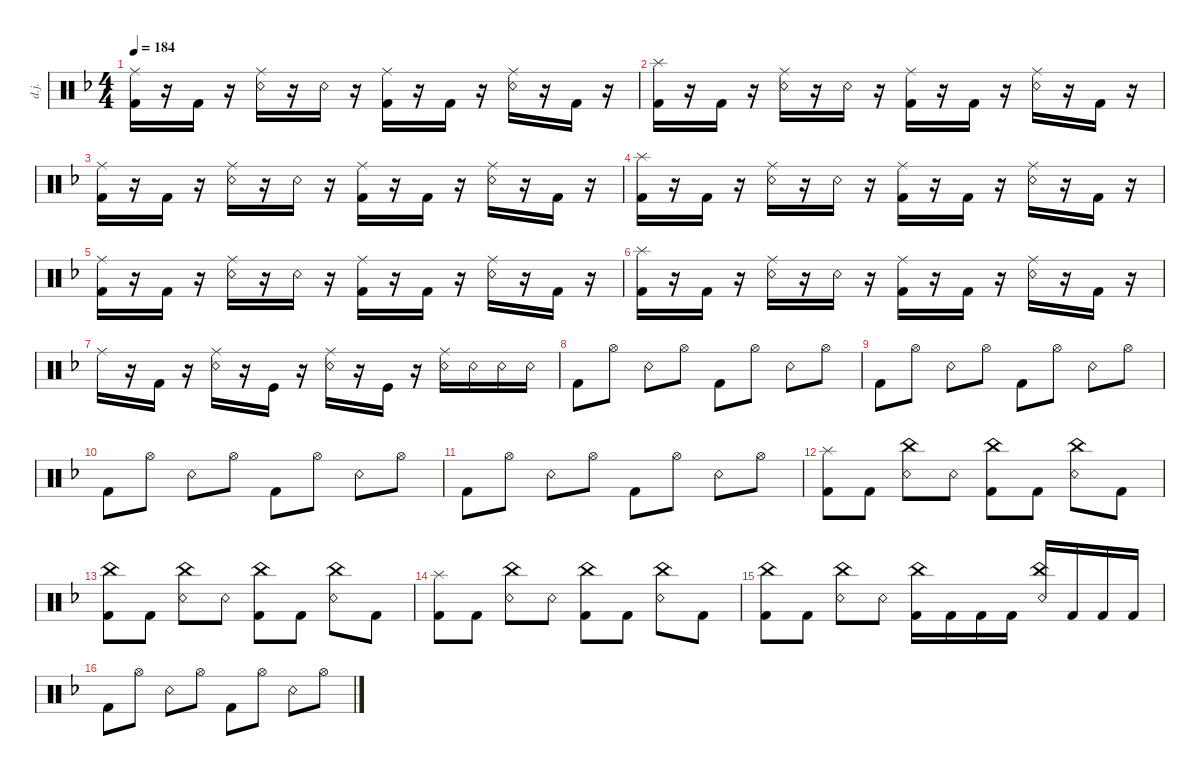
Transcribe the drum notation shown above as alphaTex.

\defaultSystemsLayout 4
\hideDynamics
\bracketExtendMode nobrackets
\otherSystemsTrackNameOrientation horizontal
\track ("Drumkit Jason" "d.j.") {instrument percussion}
\staff {score}
\articulation defaults
\ts (4 4)
\tempo 184
\clef neutral
\ks dminor
("Kick (hit) 2"{acc forcenatural} "Ride (middle)"{acc forcenatural}).16{dy ff beam Down} r.16{beam Down} "Kick (hit) 2"{acc forcenatural}.16{beam Down} r.16{beam Down} ("Snare (rim shot)"{acc forcenatural} "Ride (middle)"{acc forcenatural}).16{beam Down} r.16{beam Down} "Snare (rim shot)"{acc forcenatural}.16{beam Down} r.16{beam Down} ("Kick (hit) 2"{acc forcenatural} "Ride (middle)"{acc forcenatural}).16{beam Down} r.16{beam Down} "Kick (hit) 2"{acc forcenatural}.16{beam Down} r.16{beam Down} ("Snare (rim shot)"{acc forcenatural} "Ride (middle)"{acc forcenatural}).16{beam Down} r.16{beam Down} "Kick (hit) 2"{acc forcenatural}.16{beam Down} r.16{beam Down} |
("Kick (hit) 2"{acc forcenatural} "Splash (hit)"{acc forcenatural}).16{beam Down} r.16{beam Down} "Kick (hit) 2"{acc forcenatural}.16{beam Down} r.16{beam Down} ("Snare (rim shot)"{acc forcenatural} "Ride (middle)"{acc forcenatural}).16{beam Down} r.16{beam Down} "Snare (rim shot)"{acc forcenatural}.16{beam Down} r.16{beam Down} ("Kick (hit) 2"{acc forcenatural} "Ride (middle)"{acc forcenatural}).16{beam Down} r.16{beam Down} "Kick (hit) 2"{acc forcenatural}.16{beam Down} r.16{beam Down} ("Snare (rim shot)"{acc forcenatural} "Ride (middle)"{acc forcenatural}).16{beam Down} r.16{beam Down} "Kick (hit) 2"{acc forcenatural}.16{beam Down} r.16{beam Down} |
("Kick (hit) 2"{acc forcenatural} "Ride (middle)"{acc forcenatural}).16{beam Down} r.16{beam Down} "Kick (hit) 2"{acc forcenatural}.16{beam Down} r.16{beam Down} ("Snare (rim shot)"{acc forcenatural} "Ride (middle)"{acc forcenatural}).16{beam Down} r.16{beam Down} "Snare (rim shot)"{acc forcenatural}.16{beam Down} r.16{beam Down} ("Kick (hit) 2"{acc forcenatural} "Ride (middle)"{acc forcenatural}).16{beam Down} r.16{beam Down} "Kick (hit) 2"{acc forcenatural}.16{beam Down} r.16{beam Down} ("Snare (rim shot)"{acc forcenatural} "Ride (middle)"{acc forcenatural}).16{beam Down} r.16{beam Down} "Kick (hit) 2"{acc forcenatural}.16{beam Down} r.16{beam Down} |
("Kick (hit) 2"{acc forcenatural} "Splash (hit)"{acc forcenatural}).16{beam Down} r.16{beam Down} "Kick (hit) 2"{acc forcenatural}.16{beam Down} r.16{beam Down} ("Snare (rim shot)"{acc forcenatural} "Ride (middle)"{acc forcenatural}).16{beam Down} r.16{beam Down} "Snare (rim shot)"{acc forcenatural}.16{beam Down} r.16{beam Down} ("Kick (hit) 2"{acc forcenatural} "Ride (middle)"{acc forcenatural}).16{beam Down} r.16{beam Down} "Kick (hit) 2"{acc forcenatural}.16{beam Down} r.16{beam Down} ("Snare (rim shot)"{acc forcenatural} "Ride (middle)"{acc forcenatural}).16{beam Down} r.16{beam Down} "Kick (hit) 2"{acc forcenatural}.16{beam Down} r.16{beam Down} |
("Kick (hit) 2"{acc forcenatural} "Ride (middle)"{acc forcenatural}).16{beam Down} r.16{beam Down} "Kick (hit) 2"{acc forcenatural}.16{beam Down} r.16{beam Down} ("Snare (rim shot)"{acc forcenatural} "Ride (middle)"{acc forcenatural}).16{beam Down} r.16{beam Down} "Snare (rim shot)"{acc forcenatural}.16{beam Down} r.16{beam Down} ("Kick (hit) 2"{acc forcenatural} "Ride (middle)"{acc forcenatural}).16{beam Down} r.16{beam Down} "Kick (hit) 2"{acc forcenatural}.16{beam Down} r.16{beam Down} ("Snare (rim shot)"{acc forcenatural} "Ride (middle)"{acc forcenatural}).16{beam Down} r.16{beam Down} "Kick (hit) 2"{acc forcenatural}.16{beam Down} r.16{beam Down} |
("Kick (hit) 2"{acc forcenatural} "Splash (hit)"{acc forcenatural}).16{beam Down} r.16{beam Down} "Kick (hit) 2"{acc forcenatural}.16{beam Down} r.16{beam Down} ("Snare (rim shot)"{acc forcenatural} "Ride (middle)"{acc forcenatural}).16{beam Down} r.16{beam Down} "Snare (rim shot)"{acc forcenatural}.16{beam Down} r.16{beam Down} ("Kick (hit) 2"{acc forcenatural} "Ride (middle)"{acc forcenatural}).16{beam Down} r.16{beam Down} "Kick (hit) 2"{acc forcenatural}.16{beam Down} r.16{beam Down} ("Snare (rim shot)"{acc forcenatural} "Ride (middle)"{acc forcenatural}).16{beam Down} r.16{beam Down} "Kick (hit) 2"{acc forcenatural}.16{beam Down} r.16{beam Down} |
"Ride (middle)"{acc forcenatural}.16{beam Down} r.16{beam Down} "Kick (hit) 2"{acc forcenatural}.16{beam Down} r.16{beam Down} ("Snare (rim shot)"{acc forcenatural} "Ride (middle)"{acc forcenatural}).16{beam Down} r.16{beam Down} "Kick (hit)"{acc forcenatural}.16{beam Down} r.16{beam Down} ("Snare (rim shot)"{acc forcenatural} "Ride (middle)"{acc forcenatural}).16{beam Down} r.16{beam Down} "Kick (hit)"{acc forcenatural}.16{beam Down} r.16{beam Down} ("Snare (rim shot)"{acc forcenatural} "Ride (middle)"{acc forcenatural}).16{beam Down} "Snare (rim shot)"{acc forcenatural}.16{beam Down} "Snare (rim shot)"{acc forcenatural}.16{beam Down} "Snare (rim shot)"{acc forcenatural}.16{beam Down} |
"Kick (hit) 2"{acc forcenatural}.8{beam Down} "Hi-Hat (open)"{acc forcenatural}.8{beam Down} "Snare (rim shot)"{acc forcenatural}.8{beam Down} "Hi-Hat (open)"{acc forcenatural}.8{beam Down} "Kick (hit) 2"{acc forcenatural}.8{beam Down} "Hi-Hat (open)"{acc forcenatural}.8{beam Down} "Snare (rim shot)"{acc forcenatural}.8{beam Down} "Hi-Hat (open)"{acc forcenatural}.8{beam Down} |
"Kick (hit) 2"{acc forcenatural}.8{beam Down} "Hi-Hat (open)"{acc forcenatural}.8{beam Down} "Snare (rim shot)"{acc forcenatural}.8{beam Down} "Hi-Hat (open)"{acc forcenatural}.8{beam Down} "Kick (hit) 2"{acc forcenatural}.8{beam Down} "Hi-Hat (open)"{acc forcenatural}.8{beam Down} "Snare (rim shot)"{acc forcenatural}.8{beam Down} "Hi-Hat (open)"{acc forcenatural}.8{beam Down} |
"Kick (hit) 2"{acc forcenatural}.8{beam Down} "Hi-Hat (open)"{acc forcenatural}.8{beam Down} "Snare (rim shot)"{acc forcenatural}.8{beam Down} "Hi-Hat (open)"{acc forcenatural}.8{beam Down} "Kick (hit) 2"{acc forcenatural}.8{beam Down} "Hi-Hat (open)"{acc forcenatural}.8{beam Down} "Snare (rim shot)"{acc forcenatural}.8{beam Down} "Hi-Hat (open)"{acc forcenatural}.8{beam Down} |
"Kick (hit) 2"{acc forcenatural}.8{beam Down} "Hi-Hat (open)"{acc forcenatural}.8{beam Down} "Snare (rim shot)"{acc forcenatural}.8{beam Down} "Hi-Hat (open)"{acc forcenatural}.8{beam Down} "Kick (hit) 2"{acc forcenatural}.8{beam Down} "Hi-Hat (open)"{acc forcenatural}.8{beam Down} "Snare (rim shot)"{acc forcenatural}.8{beam Down} "Hi-Hat (open)"{acc forcenatural}.8{beam Down} |
("Kick (hit) 2"{acc forcenatural} "Splash (hit)"{acc forcenatural}).8{beam Down} "Kick (hit) 2"{acc forcenatural}.8{beam Down} ("Snare (rim shot)"{acc forcenatural} "China (hit)"{acc forcenatural}).8{beam Down} "Snare (rim shot)"{acc forcenatural}.8{beam Down} ("Kick (hit) 2"{acc forcenatural} "China (hit)"{acc forcenatural}).8{beam Down} "Kick (hit) 2"{acc forcenatural}.8{beam Down} ("Snare (rim shot)"{acc forcenatural} "China (hit)"{acc forcenatural}).8{beam Down} "Kick (hit) 2"{acc forcenatural}.8{beam Down} |
("Kick (hit) 2"{acc forcenatural} "China (hit)"{acc forcenatural}).8{beam Down} "Kick (hit) 2"{acc forcenatural}.8{beam Down} ("Snare (rim shot)"{acc forcenatural} "China (hit)"{acc forcenatural}).8{beam Down} "Snare (rim shot)"{acc forcenatural}.8{beam Down} ("Kick (hit) 2"{acc forcenatural} "China (hit)"{acc forcenatural}).8{beam Down} "Kick (hit) 2"{acc forcenatural}.8{beam Down} ("Snare (rim shot)"{acc forcenatural} "China (hit)"{acc forcenatural}).8{beam Down} "Kick (hit) 2"{acc forcenatural}.8{beam Down} |
("Kick (hit) 2"{acc forcenatural} "Splash (hit)"{acc forcenatural}).8{beam Down} "Kick (hit) 2"{acc forcenatural}.8{beam Down} ("Snare (rim shot)"{acc forcenatural} "China (hit)"{acc forcenatural}).8{beam Down} "Snare (rim shot)"{acc forcenatural}.8{beam Down} ("Kick (hit) 2"{acc forcenatural} "China (hit)"{acc forcenatural}).8{beam Down} "Kick (hit) 2"{acc forcenatural}.8{beam Down} ("Snare (rim shot)"{acc forcenatural} "China (hit)"{acc forcenatural}).8{beam Down} "Kick (hit) 2"{acc forcenatural}.8{beam Down} |
("Kick (hit) 2"{acc forcenatural} "China (hit)"{acc forcenatural}).8{beam Down} "Kick (hit) 2"{acc forcenatural}.8{beam Down} ("Snare (rim shot)"{acc forcenatural} "China (hit)"{acc forcenatural}).8{beam Down} "Snare (rim shot)"{acc forcenatural}.8{beam Down} ("Kick (hit) 2"{acc forcenatural} "China (hit)"{acc forcenatural}).16{beam Down} "Kick (hit) 2"{acc forcenatural}.16{beam Down} "Kick (hit) 2"{acc forcenatural}.16{beam Down} "Kick (hit) 2"{acc forcenatural}.16{beam Down} ("Snare (rim shot)"{acc forcenatural} "China (hit)"{acc forcenatural}).16{beam Up} "Kick (hit) 2"{acc forcenatural}.16{beam Up} "Kick (hit) 2"{acc forcenatural}.16{beam Up} "Kick (hit) 2"{acc forcenatural}.16{beam Up} |
"Kick (hit) 2"{acc forcenatural}.8{beam Down} "Hi-Hat (open)"{acc forcenatural}.8{beam Down} "Snare (rim shot)"{acc forcenatural}.8{beam Down} "Hi-Hat (open)"{acc forcenatural}.8{beam Down} "Kick (hit) 2"{acc forcenatural}.8{beam Down} "Hi-Hat (open)"{acc forcenatural}.8{beam Down} "Snare (rim shot)"{acc forcenatural}.8{beam Down} "Hi-Hat (open)"{acc forcenatural}.8{beam Down}
